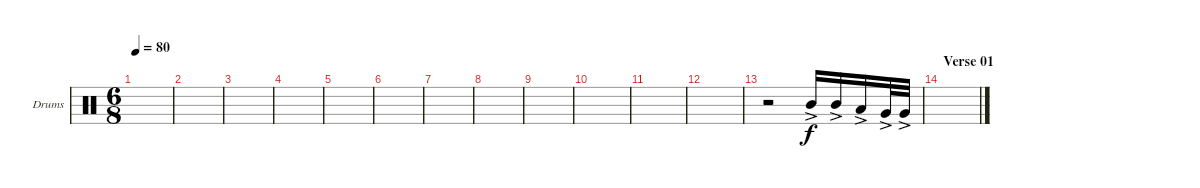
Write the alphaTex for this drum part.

\defaultSystemsLayout 4
\bracketExtendMode groupsimilarinstruments
\firstSystemTrackNameOrientation horizontal
\otherSystemsTrackNameOrientation horizontal
\track ("Drumkit" "Drums") {instrument percussion}
\staff {score}
\articulation defaults
\ts (6 8)
\tempo 80
\clef neutral
\scale
0.474178
\ks c
|
\scale
0.262911 |
\scale
0.262911 |
\scale
0.333333 |
\scale
0.333333 |
\scale
0.333333 |
\scale
0.333333 |
\scale
0.333333 |
\scale
0.333333 |
\scale
0.333333 |
\scale
0.333333 |
\scale
0.333333 |
\scale
0.333333 r.2 "Mid Tom (hit)"{ac}.16 "Mid Tom (hit)"{ac}.16 "Low Tom (hit)"{ac}.16 "Very Low Tom (hit)"{ac}.32 "Very Low Tom (hit)"{ac}.32 |
\section ("" "Verse 01")
\scale
0.333333 |
\scale
0.333333 |
\scale
0.333333
